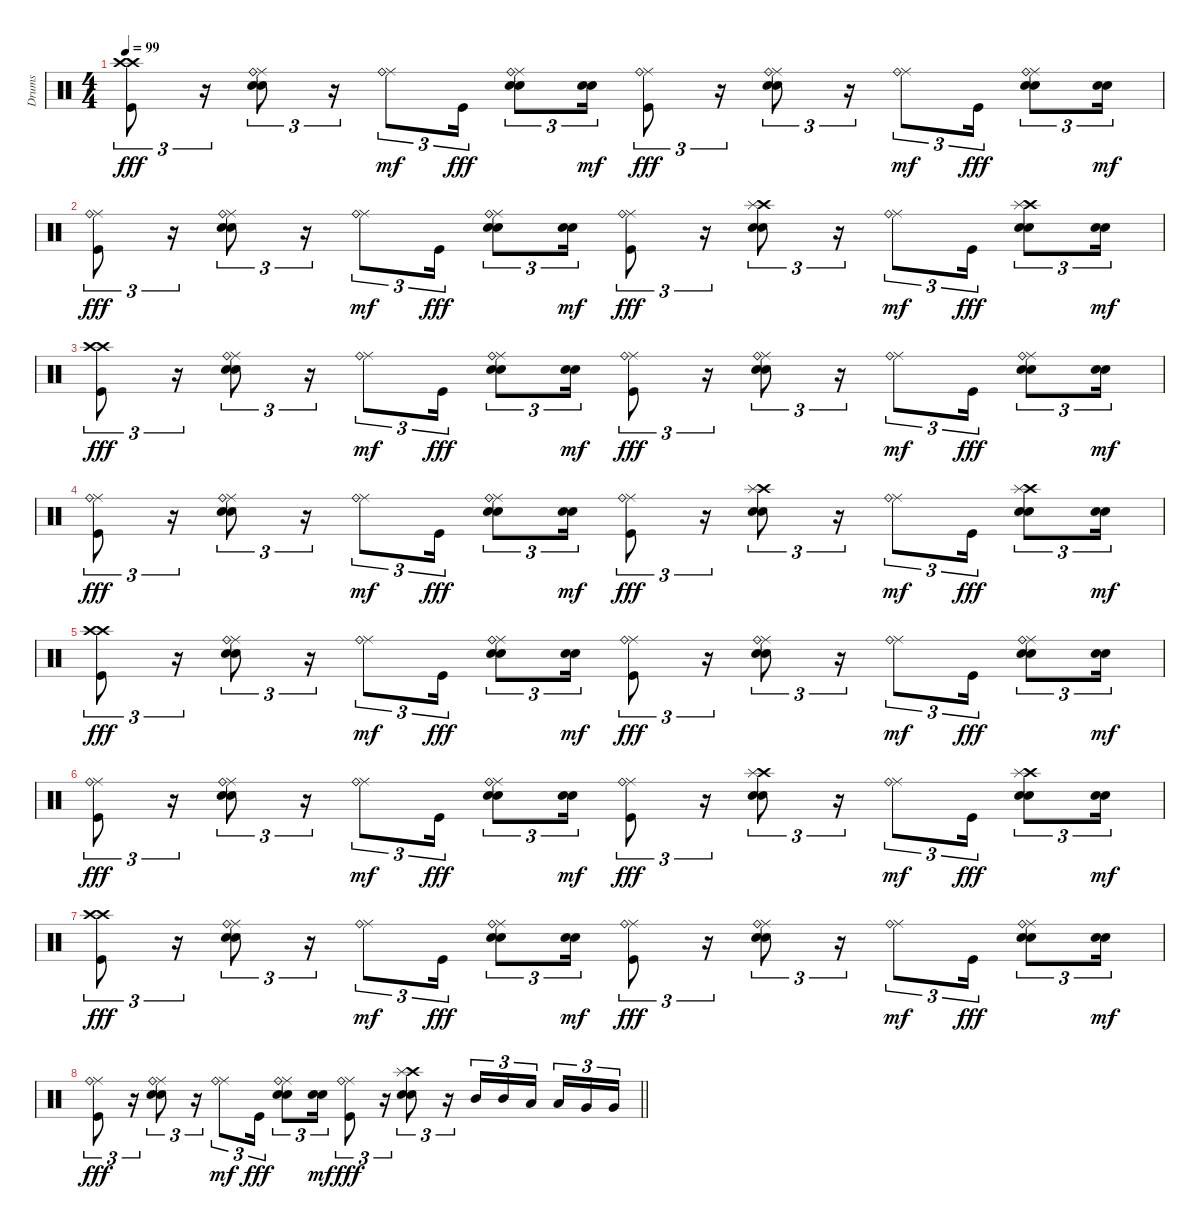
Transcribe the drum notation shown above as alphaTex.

\track ("Drums" "Drums") {instrument percussion}
\staff {score}
\articulation defaults
\ts (4 4)
\tempo 99
\clef neutral
\ks c
("Crash high (hit)" "Crash high (hit)" "Kick (hit)").8{tu (3 2) dy fff} r.16{tu (3 2)} ("Ride (middle)" "Ride (bell)" "Snare (hit) 2" "Electric Snare (hit)").8{tu (3 2)} r.16{tu (3 2)} ("Ride (middle)" "Ride (bell)").8{tu (3 2) dy mf} "Kick (hit)".16{tu (3 2) dy fff} ("Ride (middle)" "Ride (bell)" "Snare (hit) 2" "Electric Snare (hit)").8{tu (3 2)} ("Snare (hit) 2" "Electric Snare (hit)").16{tu (3 2) dy mf} ("Ride (middle)" "Ride (bell)" "Kick (hit)").8{tu (3 2) dy fff} r.16{tu (3 2)} ("Ride (middle)" "Ride (bell)" "Snare (hit) 2" "Electric Snare (hit)").8{tu (3 2)} r.16{tu (3 2)} ("Ride (middle)" "Ride (bell)").8{tu (3 2) dy mf} "Kick (hit)".16{tu (3 2) dy fff} ("Ride (middle)" "Ride (bell)" "Snare (hit) 2" "Electric Snare (hit)").8{tu (3 2)} ("Snare (hit) 2" "Electric Snare (hit)").16{tu (3 2) dy mf} |
("Ride (middle)" "Ride (bell)" "Kick (hit)").8{tu (3 2) dy fff} r.16{tu (3 2)} ("Ride (middle)" "Ride (bell)" "Snare (hit) 2" "Electric Snare (hit)").8{tu (3 2)} r.16{tu (3 2)} ("Ride (middle)" "Ride (bell)").8{tu (3 2) dy mf} "Kick (hit)".16{tu (3 2) dy fff} ("Ride (middle)" "Ride (bell)" "Snare (hit) 2" "Electric Snare (hit)").8{tu (3 2)} ("Snare (hit) 2" "Electric Snare (hit)").16{tu (3 2) dy mf} ("Ride (middle)" "Ride (bell)" "Kick (hit)").8{tu (3 2) dy fff} r.16{tu (3 2)} ("Crash high (hit)" "Splash (hit)" "Snare (hit) 2" "Electric Snare (hit)").8{tu (3 2)} r.16{tu (3 2)} ("Ride (middle)" "Ride (bell)").8{tu (3 2) dy mf} "Kick (hit)".16{tu (3 2) dy fff} ("Crash high (hit)" "Splash (hit)" "Snare (hit) 2" "Electric Snare (hit)").8{tu (3 2)} ("Snare (hit) 2" "Electric Snare (hit)").16{tu (3 2) dy mf} |
("Crash high (hit)" "Crash high (hit)" "Kick (hit)").8{tu (3 2) dy fff} r.16{tu (3 2)} ("Ride (middle)" "Ride (bell)" "Snare (hit) 2" "Electric Snare (hit)").8{tu (3 2)} r.16{tu (3 2)} ("Ride (middle)" "Ride (bell)").8{tu (3 2) dy mf} "Kick (hit)".16{tu (3 2) dy fff} ("Ride (middle)" "Ride (bell)" "Snare (hit) 2" "Electric Snare (hit)").8{tu (3 2)} ("Snare (hit) 2" "Electric Snare (hit)").16{tu (3 2) dy mf} ("Ride (middle)" "Ride (bell)" "Kick (hit)").8{tu (3 2) dy fff} r.16{tu (3 2)} ("Ride (middle)" "Ride (bell)" "Snare (hit) 2" "Electric Snare (hit)").8{tu (3 2)} r.16{tu (3 2)} ("Ride (middle)" "Ride (bell)").8{tu (3 2) dy mf} "Kick (hit)".16{tu (3 2) dy fff} ("Ride (middle)" "Ride (bell)" "Snare (hit) 2" "Electric Snare (hit)").8{tu (3 2)} ("Snare (hit) 2" "Electric Snare (hit)").16{tu (3 2) dy mf} |
("Ride (middle)" "Ride (bell)" "Kick (hit)").8{tu (3 2) dy fff} r.16{tu (3 2)} ("Ride (middle)" "Ride (bell)" "Snare (hit) 2" "Electric Snare (hit)").8{tu (3 2)} r.16{tu (3 2)} ("Ride (middle)" "Ride (bell)").8{tu (3 2) dy mf} "Kick (hit)".16{tu (3 2) dy fff} ("Ride (middle)" "Ride (bell)" "Snare (hit) 2" "Electric Snare (hit)").8{tu (3 2)} ("Snare (hit) 2" "Electric Snare (hit)").16{tu (3 2) dy mf} ("Ride (middle)" "Ride (bell)" "Kick (hit)").8{tu (3 2) dy fff} r.16{tu (3 2)} ("Crash high (hit)" "Splash (hit)" "Snare (hit) 2" "Electric Snare (hit)").8{tu (3 2)} r.16{tu (3 2)} ("Ride (middle)" "Ride (bell)").8{tu (3 2) dy mf} "Kick (hit)".16{tu (3 2) dy fff} ("Crash high (hit)" "Splash (hit)" "Snare (hit) 2" "Electric Snare (hit)").8{tu (3 2)} ("Snare (hit) 2" "Electric Snare (hit)").16{tu (3 2) dy mf} |
("Crash high (hit)" "Crash high (hit)" "Kick (hit)").8{tu (3 2) dy fff} r.16{tu (3 2)} ("Ride (middle)" "Ride (bell)" "Snare (hit) 2" "Electric Snare (hit)").8{tu (3 2)} r.16{tu (3 2)} ("Ride (middle)" "Ride (bell)").8{tu (3 2) dy mf} "Kick (hit)".16{tu (3 2) dy fff} ("Ride (middle)" "Ride (bell)" "Snare (hit) 2" "Electric Snare (hit)").8{tu (3 2)} ("Snare (hit) 2" "Electric Snare (hit)").16{tu (3 2) dy mf} ("Ride (middle)" "Ride (bell)" "Kick (hit)").8{tu (3 2) dy fff} r.16{tu (3 2)} ("Ride (middle)" "Ride (bell)" "Snare (hit) 2" "Electric Snare (hit)").8{tu (3 2)} r.16{tu (3 2)} ("Ride (middle)" "Ride (bell)").8{tu (3 2) dy mf} "Kick (hit)".16{tu (3 2) dy fff} ("Ride (middle)" "Ride (bell)" "Snare (hit) 2" "Electric Snare (hit)").8{tu (3 2)} ("Snare (hit) 2" "Electric Snare (hit)").16{tu (3 2) dy mf} |
("Ride (middle)" "Ride (bell)" "Kick (hit)").8{tu (3 2) dy fff} r.16{tu (3 2)} ("Ride (middle)" "Ride (bell)" "Snare (hit) 2" "Electric Snare (hit)").8{tu (3 2)} r.16{tu (3 2)} ("Ride (middle)" "Ride (bell)").8{tu (3 2) dy mf} "Kick (hit)".16{tu (3 2) dy fff} ("Ride (middle)" "Ride (bell)" "Snare (hit) 2" "Electric Snare (hit)").8{tu (3 2)} ("Snare (hit) 2" "Electric Snare (hit)").16{tu (3 2) dy mf} ("Ride (middle)" "Ride (bell)" "Kick (hit)").8{tu (3 2) dy fff} r.16{tu (3 2)} ("Crash high (hit)" "Splash (hit)" "Snare (hit) 2" "Electric Snare (hit)").8{tu (3 2)} r.16{tu (3 2)} ("Ride (middle)" "Ride (bell)").8{tu (3 2) dy mf} "Kick (hit)".16{tu (3 2) dy fff} ("Crash high (hit)" "Splash (hit)" "Snare (hit) 2" "Electric Snare (hit)").8{tu (3 2)} ("Snare (hit) 2" "Electric Snare (hit)").16{tu (3 2) dy mf} |
("Crash high (hit)" "Crash high (hit)" "Kick (hit)").8{tu (3 2) dy fff} r.16{tu (3 2)} ("Ride (middle)" "Ride (bell)" "Snare (hit) 2" "Electric Snare (hit)").8{tu (3 2)} r.16{tu (3 2)} ("Ride (middle)" "Ride (bell)").8{tu (3 2) dy mf} "Kick (hit)".16{tu (3 2) dy fff} ("Ride (middle)" "Ride (bell)" "Snare (hit) 2" "Electric Snare (hit)").8{tu (3 2)} ("Snare (hit) 2" "Electric Snare (hit)").16{tu (3 2) dy mf} ("Ride (middle)" "Ride (bell)" "Kick (hit)").8{tu (3 2) dy fff} r.16{tu (3 2)} ("Ride (middle)" "Ride (bell)" "Snare (hit) 2" "Electric Snare (hit)").8{tu (3 2)} r.16{tu (3 2)} ("Ride (middle)" "Ride (bell)").8{tu (3 2) dy mf} "Kick (hit)".16{tu (3 2) dy fff} ("Ride (middle)" "Ride (bell)" "Snare (hit) 2" "Electric Snare (hit)").8{tu (3 2)} ("Snare (hit) 2" "Electric Snare (hit)").16{tu (3 2) dy mf} |
\barLineRight lightlight
("Ride (middle)" "Ride (bell)" "Kick (hit)").8{tu (3 2) dy fff} r.16{tu (3 2)} ("Ride (middle)" "Ride (bell)" "Snare (hit) 2" "Electric Snare (hit)").8{tu (3 2)} r.16{tu (3 2)} ("Ride (middle)" "Ride (bell)").8{tu (3 2) dy mf} "Kick (hit)".16{tu (3 2) dy fff} ("Ride (middle)" "Ride (bell)" "Snare (hit) 2" "Electric Snare (hit)").8{tu (3 2)} ("Snare (hit) 2" "Electric Snare (hit)").16{tu (3 2) dy mf} ("Ride (middle)" "Ride (bell)" "Kick (hit)").8{tu (3 2) dy fff} r.16{tu (3 2)} ("Crash high (hit)" "Splash (hit)" "Snare (hit) 2" "Electric Snare (hit)").8{tu (3 2)} r.16{tu (3 2)} "Mid Tom (hit)".16{tu (3 2)} "Mid Tom (hit)".16{tu (3 2)} "Low Tom (hit)".16{tu (3 2) beam splitsecondary} "Low Tom (hit)".16{tu (3 2)} "Very Low Tom (hit)".16{tu (3 2)} "Very Low Tom (hit)".16{tu (3 2)}
